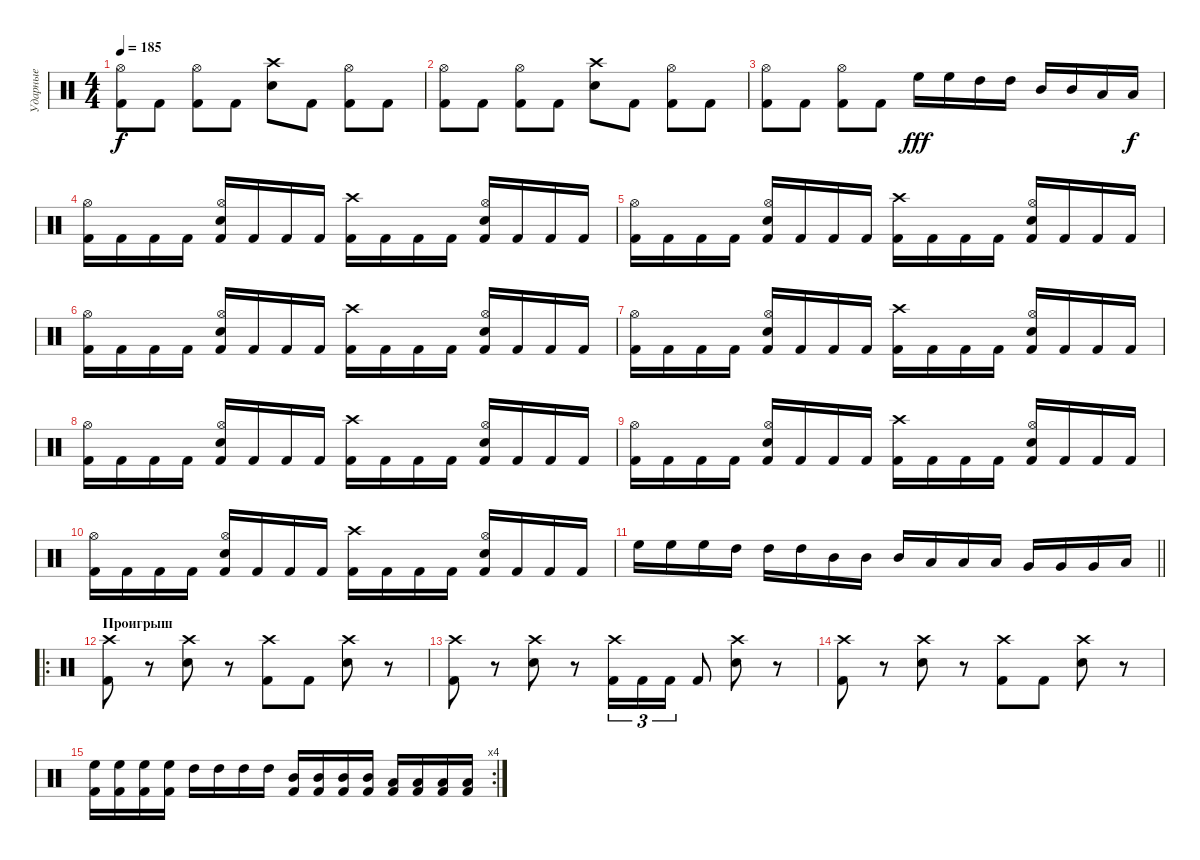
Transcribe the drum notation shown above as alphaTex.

\track ("Ударные" "Ударные") {instrument percussion}
\staff {score}
\articulation defaults
\ts (4 4)
\tempo 185
\clef neutral
\ks c
("Kick (hit) 2" "Hi-Hat (open)").8{dy f} "Kick (hit) 2".8 ("Kick (hit) 2" "Hi-Hat (open)").8 "Kick (hit) 2".8 ("Electric Snare (hit)" "Crash high (hit)").8 "Kick (hit) 2".8 ("Kick (hit) 2" "Hi-Hat (open)").8 "Kick (hit) 2".8 |
("Kick (hit) 2" "Hi-Hat (open)").8 "Kick (hit) 2".8 ("Kick (hit) 2" "Hi-Hat (open)").8 "Kick (hit) 2".8 ("Electric Snare (hit)" "Crash high (hit)").8 "Kick (hit) 2".8 ("Kick (hit) 2" "Hi-Hat (open)").8 "Kick (hit) 2".8 |
("Kick (hit) 2" "Hi-Hat (open)").8 "Kick (hit) 2".8 ("Kick (hit) 2" "Hi-Hat (open)").8 "Kick (hit) 2".8 "High Floor Tom (hit)".16{dy fff} "High Floor Tom (hit)".16 "High Tom (hit)".16 "High Tom (hit)".16 "Mid Tom (hit)".16 "Mid Tom (hit)".16 "Low Tom (hit)".16 "Low Tom (hit)".16{dy f} |
("Kick (hit) 2" "Hi-Hat (open)").16 "Kick (hit) 2".16 "Kick (hit) 2".16 "Kick (hit) 2".16 ("Kick (hit) 2" "Hi-Hat (open)" "Electric Snare (hit)").16 "Kick (hit) 2".16 "Kick (hit) 2".16 "Kick (hit) 2".16 ("Kick (hit) 2" "Crash high (hit)").16 "Kick (hit) 2".16 "Kick (hit) 2".16 "Kick (hit) 2".16 ("Kick (hit) 2" "Hi-Hat (open)" "Electric Snare (hit)").16 "Kick (hit) 2".16 "Kick (hit) 2".16 "Kick (hit) 2".16 |
("Kick (hit) 2" "Hi-Hat (open)").16 "Kick (hit) 2".16 "Kick (hit) 2".16 "Kick (hit) 2".16 ("Kick (hit) 2" "Hi-Hat (open)" "Electric Snare (hit)").16 "Kick (hit) 2".16 "Kick (hit) 2".16 "Kick (hit) 2".16 ("Kick (hit) 2" "Crash high (hit)").16 "Kick (hit) 2".16 "Kick (hit) 2".16 "Kick (hit) 2".16 ("Kick (hit) 2" "Hi-Hat (open)" "Electric Snare (hit)").16 "Kick (hit) 2".16 "Kick (hit) 2".16 "Kick (hit) 2".16 |
("Kick (hit) 2" "Hi-Hat (open)").16 "Kick (hit) 2".16 "Kick (hit) 2".16 "Kick (hit) 2".16 ("Kick (hit) 2" "Hi-Hat (open)" "Electric Snare (hit)").16 "Kick (hit) 2".16 "Kick (hit) 2".16 "Kick (hit) 2".16 ("Kick (hit) 2" "Crash high (hit)").16 "Kick (hit) 2".16 "Kick (hit) 2".16 "Kick (hit) 2".16 ("Kick (hit) 2" "Hi-Hat (open)" "Electric Snare (hit)").16 "Kick (hit) 2".16 "Kick (hit) 2".16 "Kick (hit) 2".16 |
("Kick (hit) 2" "Hi-Hat (open)").16 "Kick (hit) 2".16 "Kick (hit) 2".16 "Kick (hit) 2".16 ("Kick (hit) 2" "Hi-Hat (open)" "Electric Snare (hit)").16 "Kick (hit) 2".16 "Kick (hit) 2".16 "Kick (hit) 2".16 ("Kick (hit) 2" "Crash high (hit)").16 "Kick (hit) 2".16 "Kick (hit) 2".16 "Kick (hit) 2".16 ("Kick (hit) 2" "Hi-Hat (open)" "Electric Snare (hit)").16 "Kick (hit) 2".16 "Kick (hit) 2".16 "Kick (hit) 2".16 |
("Kick (hit) 2" "Hi-Hat (open)").16 "Kick (hit) 2".16 "Kick (hit) 2".16 "Kick (hit) 2".16 ("Kick (hit) 2" "Hi-Hat (open)" "Electric Snare (hit)").16 "Kick (hit) 2".16 "Kick (hit) 2".16 "Kick (hit) 2".16 ("Kick (hit) 2" "Crash high (hit)").16 "Kick (hit) 2".16 "Kick (hit) 2".16 "Kick (hit) 2".16 ("Kick (hit) 2" "Hi-Hat (open)" "Electric Snare (hit)").16 "Kick (hit) 2".16 "Kick (hit) 2".16 "Kick (hit) 2".16 |
("Kick (hit) 2" "Hi-Hat (open)").16 "Kick (hit) 2".16 "Kick (hit) 2".16 "Kick (hit) 2".16 ("Kick (hit) 2" "Hi-Hat (open)" "Electric Snare (hit)").16 "Kick (hit) 2".16 "Kick (hit) 2".16 "Kick (hit) 2".16 ("Kick (hit) 2" "Crash high (hit)").16 "Kick (hit) 2".16 "Kick (hit) 2".16 "Kick (hit) 2".16 ("Kick (hit) 2" "Hi-Hat (open)" "Electric Snare (hit)").16 "Kick (hit) 2".16 "Kick (hit) 2".16 "Kick (hit) 2".16 |
("Kick (hit) 2" "Hi-Hat (open)").16 "Kick (hit) 2".16 "Kick (hit) 2".16 "Kick (hit) 2".16 ("Kick (hit) 2" "Hi-Hat (open)" "Electric Snare (hit)").16 "Kick (hit) 2".16 "Kick (hit) 2".16 "Kick (hit) 2".16 ("Kick (hit) 2" "Crash high (hit)").16 "Kick (hit) 2".16 "Kick (hit) 2".16 "Kick (hit) 2".16 ("Kick (hit) 2" "Hi-Hat (open)" "Electric Snare (hit)").16 "Kick (hit) 2".16 "Kick (hit) 2".16 "Kick (hit) 2".16 |
\barLineRight lightlight "High Floor Tom (hit)".16 "High Floor Tom (hit)".16 "High Floor Tom (hit)".16 "High Tom (hit)".16 "High Tom (hit)".16 "High Tom (hit)".16 "Mid Tom (hit)".16 "Mid Tom (hit)".16 "Mid Tom (hit)".16 "Low Tom (hit)".16 "Low Tom (hit)".16 "Low Tom (hit)".16 "Very Low Tom (hit)".16 "Very Low Tom (hit)".16 "Very Low Tom (hit)".16 "Low Floor Tom (hit)".16
|
\ro
\section ("" "Проигрыш")
("Kick (hit) 2" "Crash high (hit)").8 r.8 ("Electric Snare (hit)" "Crash high (hit)").8 r.8 ("Kick (hit) 2" "Crash high (hit)").8 "Kick (hit) 2".8 ("Electric Snare (hit)" "Crash high (hit)").8 r.8 |
("Kick (hit) 2" "Crash high (hit)").8 r.8 ("Electric Snare (hit)" "Crash high (hit)").8 r.8 ("Kick (hit) 2" "Crash high (hit)").16{tu (3 2)} "Kick (hit) 2".16{tu (3 2)} "Kick (hit) 2".16{tu (3 2)} "Kick (hit) 2".8 ("Electric Snare (hit)" "Crash high (hit)").8 r.8 |
("Kick (hit) 2" "Crash high (hit)").8 r.8 ("Electric Snare (hit)" "Crash high (hit)").8 r.8 ("Kick (hit) 2" "Crash high (hit)").8 "Kick (hit) 2".8 ("Electric Snare (hit)" "Crash high (hit)").8 r.8 |
\rc 4
("High Floor Tom (hit)" "Kick (hit) 2").16 ("High Floor Tom (hit)" "Kick (hit) 2").16 ("High Floor Tom (hit)" "Kick (hit) 2").16 ("High Floor Tom (hit)" "Kick (hit) 2").16 "High Tom (hit)".16 "High Tom (hit)".16 "High Tom (hit)".16 "High Tom (hit)".16 ("Mid Tom (hit)" "Kick (hit) 2").16 ("Mid Tom (hit)" "Kick (hit) 2").16 ("Mid Tom (hit)" "Kick (hit) 2").16 ("Mid Tom (hit)" "Kick (hit) 2").16 ("Low Tom (hit)" "Kick (hit) 2").16 ("Low Tom (hit)" "Kick (hit) 2").16 ("Low Tom (hit)" "Kick (hit) 2").16 ("Low Tom (hit)" "Kick (hit) 2").16
